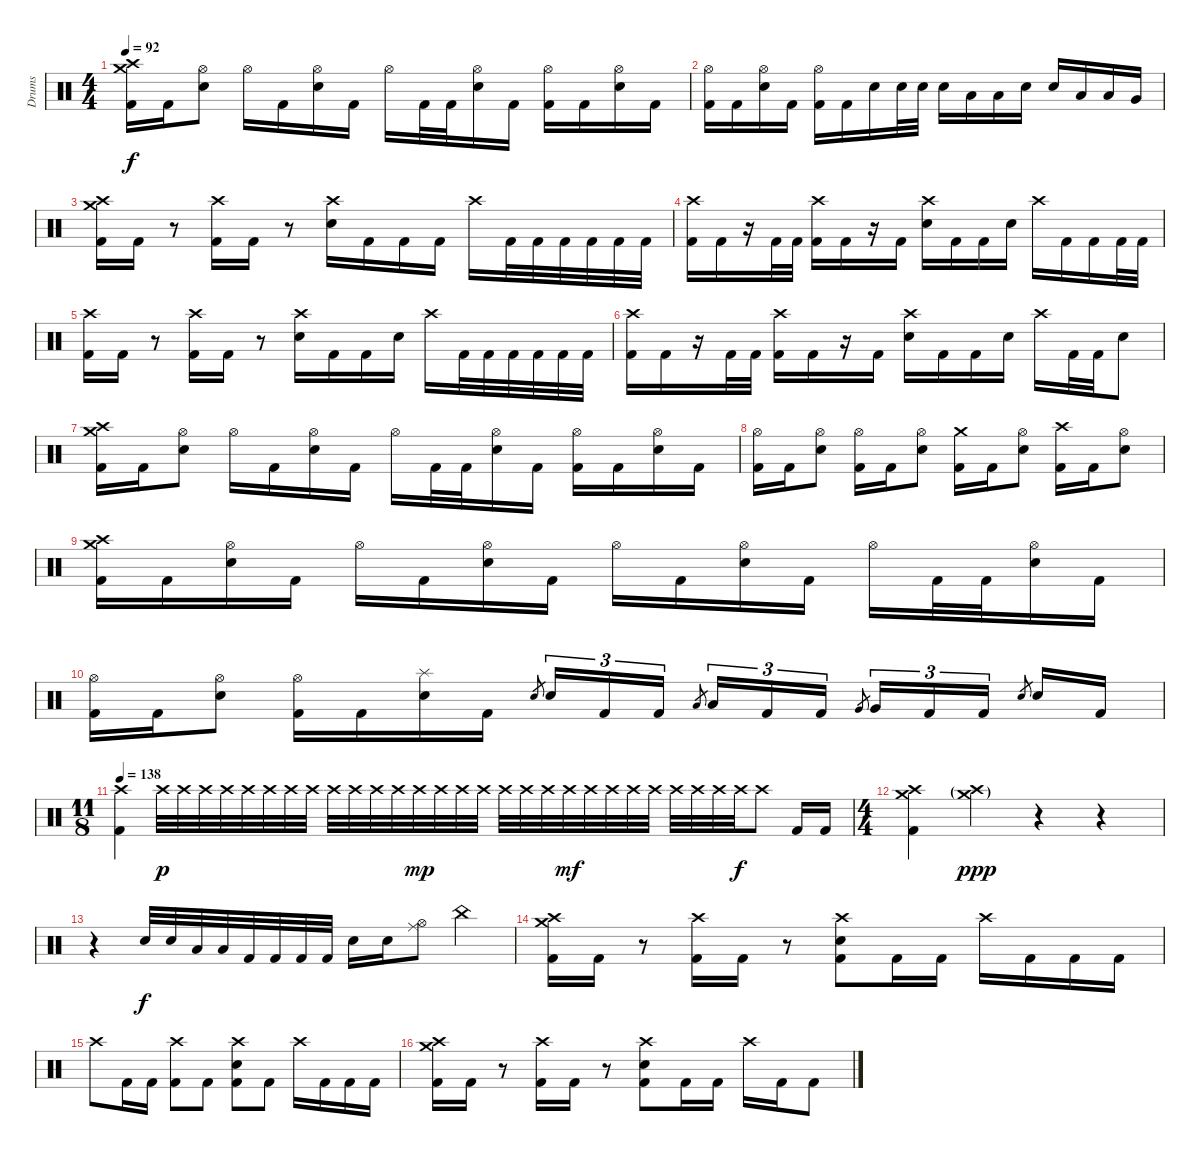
\track ("Drums" "Drums") {instrument percussion}
\staff {score}
\articulation defaults
\ts (4 4)
\tempo 92
\clef neutral
\ks c
("Crash high (hit)" "Crash medium (hit)" "Kick (hit) 2").16{dy f} "Kick (hit) 2".16 ("Hi-Hat (open)" "Electric Snare (hit)").8 "Hi-Hat (open)".16 "Kick (hit) 2".16 ("Hi-Hat (open)" "Electric Snare (hit)").16 "Kick (hit) 2".16 "Hi-Hat (open)".16 "Kick (hit) 2".32 "Kick (hit) 2".32 ("Hi-Hat (open)" "Electric Snare (hit)").16 "Kick (hit) 2".16 ("Hi-Hat (open)" "Kick (hit) 2").16 "Kick (hit) 2".16 ("Hi-Hat (open)" "Electric Snare (hit)").16 "Kick (hit) 2".16 |
("Hi-Hat (open)" "Kick (hit) 2").16 "Kick (hit) 2".16 ("Hi-Hat (open)" "Electric Snare (hit)").16 "Kick (hit) 2".16 ("Hi-Hat (open)" "Kick (hit) 2").16 "Kick (hit) 2".16 "Electric Snare (hit)".16 "Electric Snare (hit)".32 "Electric Snare (hit)".32 "Electric Snare (hit)".16 "Low Tom (hit)".16 "Low Tom (hit)".16 "Electric Snare (hit)".16 "Electric Snare (hit)".16 "Low Tom (hit)".16 "Low Tom (hit)".16 "Very Low Tom (hit)".16 |
("Crash high (hit)" "Crash medium (hit)" "Kick (hit) 2").16 "Kick (hit) 2".16 r.8 ("Crash high (hit)" "Kick (hit) 2").16 "Kick (hit) 2".16 r.8 ("Crash high (hit)" "Electric Snare (hit)").16 "Kick (hit) 2".16 "Kick (hit) 2".16 "Kick (hit) 2".16 "Crash high (hit)".16 "Kick (hit) 2".32 "Kick (hit) 2".32 "Kick (hit) 2".32 "Kick (hit) 2".32 "Kick (hit) 2".32 "Kick (hit) 2".32 |
("Crash high (hit)" "Kick (hit) 2").16 "Kick (hit) 2".16 r.16 "Kick (hit) 2".32 "Kick (hit) 2".32 ("Crash high (hit)" "Kick (hit) 2").16 "Kick (hit) 2".16 r.16 "Kick (hit) 2".16 ("Crash high (hit)" "Electric Snare (hit)").16 "Kick (hit) 2".16 "Kick (hit) 2".16 "Electric Snare (hit)".16 "Crash high (hit)".16 "Kick (hit) 2".16 "Kick (hit) 2".16 "Kick (hit) 2".32 "Kick (hit) 2".32 |
("Crash high (hit)" "Kick (hit) 2").16 "Kick (hit) 2".16 r.8 ("Crash high (hit)" "Kick (hit) 2").16 "Kick (hit) 2".16 r.8 ("Crash high (hit)" "Electric Snare (hit)").16 "Kick (hit) 2".16 "Kick (hit) 2".16 "Electric Snare (hit)".16 "Crash high (hit)".16 "Kick (hit) 2".32 "Kick (hit) 2".32 "Kick (hit) 2".32 "Kick (hit) 2".32 "Kick (hit) 2".32 "Kick (hit) 2".32 |
("Crash high (hit)" "Kick (hit) 2").16 "Kick (hit) 2".16 r.16 "Kick (hit) 2".32 "Kick (hit) 2".32 ("Crash high (hit)" "Kick (hit) 2").16 "Kick (hit) 2".16 r.16 "Kick (hit) 2".16 ("Crash high (hit)" "Electric Snare (hit)").16 "Kick (hit) 2".16 "Kick (hit) 2".16 "Electric Snare (hit)".16 "Crash high (hit)".16 "Kick (hit) 2".32 "Kick (hit) 2".32 "Electric Snare (hit)".8 |
("Crash high (hit)" "Crash medium (hit)" "Kick (hit) 2").16 "Kick (hit) 2".16 ("Hi-Hat (open)" "Electric Snare (hit)").8 "Hi-Hat (open)".16 "Kick (hit) 2".16 ("Hi-Hat (open)" "Electric Snare (hit)").16 "Kick (hit) 2".16 "Hi-Hat (open)".16 "Kick (hit) 2".32 "Kick (hit) 2".32 ("Hi-Hat (open)" "Electric Snare (hit)").16 "Kick (hit) 2".16 ("Hi-Hat (open)" "Kick (hit) 2").16 "Kick (hit) 2".16 ("Hi-Hat (open)" "Electric Snare (hit)").16 "Kick (hit) 2".16 |
("Hi-Hat (open)" "Kick (hit) 2").16 "Kick (hit) 2".16 ("Hi-Hat (open)" "Electric Snare (hit)").8 ("Hi-Hat (open)" "Kick (hit) 2").16 "Kick (hit) 2".16 ("Hi-Hat (open)" "Electric Snare (hit)").8 ("Crash medium (hit)" "Kick (hit) 2").16 "Kick (hit) 2".16 ("Hi-Hat (open)" "Electric Snare (hit)").8 ("Crash high (hit)" "Kick (hit) 2").16 "Kick (hit) 2".16 ("Hi-Hat (open)" "Electric Snare (hit)").8 |
("Crash high (hit)" "Crash medium (hit)" "Kick (hit) 2").16 "Kick (hit) 2".16 ("Hi-Hat (open)" "Electric Snare (hit)").16 "Kick (hit) 2".16 "Hi-Hat (open)".16 "Kick (hit) 2".16 ("Hi-Hat (open)" "Electric Snare (hit)").16 "Kick (hit) 2".16 "Hi-Hat (open)".16 "Kick (hit) 2".16 ("Hi-Hat (open)" "Electric Snare (hit)").16 "Kick (hit) 2".16 "Hi-Hat (open)".16 "Kick (hit) 2".32 "Kick (hit) 2".32 ("Hi-Hat (open)" "Electric Snare (hit)").16 "Kick (hit) 2".16 |
("Hi-Hat (open)" "Kick (hit) 2").16 "Kick (hit) 2".16 ("Hi-Hat (open)" "Electric Snare (hit)").8 ("Hi-Hat (open)" "Kick (hit) 2").16 "Kick (hit) 2".16 ("Splash (hit)" "Electric Snare (hit)").16 "Kick (hit) 2".16 "Electric Snare (hit)".8{gr} "Electric Snare (hit)".16{tu (3 2)} "Kick (hit) 2".16{tu (3 2)} "Kick (hit) 2".16{tu (3 2)} "Low Tom (hit)".8{gr beam splitsecondary} "Low Tom (hit)".16{tu (3 2)} "Kick (hit) 2".16{tu (3 2)} "Kick (hit) 2".16{tu (3 2)} "Very Low Tom (hit)".8{gr} "Very Low Tom (hit)".16{tu (3 2)} "Kick (hit) 2".16{tu (3 2)} "Kick (hit) 2".16{tu (3 2)} "Electric Snare (hit)".8{gr beam splitsecondary} "Electric Snare (hit)".16 "Kick (hit) 2".16 |
\ts (11 8)
\tempo 138
("Crash high (hit)" "Kick (hit) 2").4 "Crash high (hit)".32{dy p} "Crash high (hit)".32 "Crash high (hit)".32 "Crash high (hit)".32 "Crash high (hit)".32 "Crash high (hit)".32 "Crash high (hit)".32 "Crash high (hit)".32 "Crash high (hit)".32 "Crash high (hit)".32 "Crash high (hit)".32 "Crash high (hit)".32 "Crash high (hit)".32{dy mp} "Crash high (hit)".32 "Crash high (hit)".32 "Crash high (hit)".32 "Crash high (hit)".32 "Crash high (hit)".32 "Crash high (hit)".32 "Crash high (hit)".32{dy mf} "Crash high (hit)".32 "Crash high (hit)".32 "Crash high (hit)".32 "Crash high (hit)".32 "Crash high (hit)".32 "Crash high (hit)".32 "Crash high (hit)".32 "Crash high (hit)".32{dy f} "Crash high (hit)".8 "Kick (hit) 2".16 "Kick (hit) 2".16 |
\ts (4 4)
("Crash high (hit)" "Crash medium (hit)" "Kick (hit) 2").4 ("Crash high (hit)"{g} "Crash medium (hit)"{g}).4{dy ppp} r.4 r.4 |
r.4 "Electric Snare (hit)".32{dy f} "Electric Snare (hit)".32 "Low Tom (hit)".32 "Low Tom (hit)".32 "Kick (hit) 2".32 "Kick (hit) 2".32 "Kick (hit) 2".32 "Kick (hit) 2".32 "Electric Snare (hit)".16 "Electric Snare (hit)".16 ("Ride (middle)" "Hi-Hat (open)").8 "China (hit)".4 |
("Crash high (hit)" "Crash medium (hit)" "Kick (hit) 2").16 "Kick (hit) 2".16 r.8 ("Crash high (hit)" "Kick (hit) 2").16 "Kick (hit) 2".16 r.8 ("Crash high (hit)" "Electric Snare (hit)" "Kick (hit) 2").8 "Kick (hit) 2".16 "Kick (hit) 2".16 "Crash high (hit)".16 "Kick (hit) 2".16 "Kick (hit) 2".16 "Kick (hit) 2".16 |
"Crash high (hit)".8 "Kick (hit) 2".16 "Kick (hit) 2".16 ("Crash high (hit)" "Kick (hit) 2").8 "Kick (hit) 2".8 ("Crash high (hit)" "Electric Snare (hit)" "Kick (hit) 2").8 "Kick (hit) 2".8 "Crash high (hit)".16 "Kick (hit) 2".16 "Kick (hit) 2".16 "Kick (hit) 2".16 |
("Crash high (hit)" "Crash medium (hit)" "Kick (hit) 2").16 "Kick (hit) 2".16 r.8 ("Crash high (hit)" "Kick (hit) 2").16 "Kick (hit) 2".16 r.8 ("Crash high (hit)" "Electric Snare (hit)" "Kick (hit) 2").8 "Kick (hit) 2".16 "Kick (hit) 2".16 "Crash high (hit)".16 "Kick (hit) 2".16 "Kick (hit) 2".8
